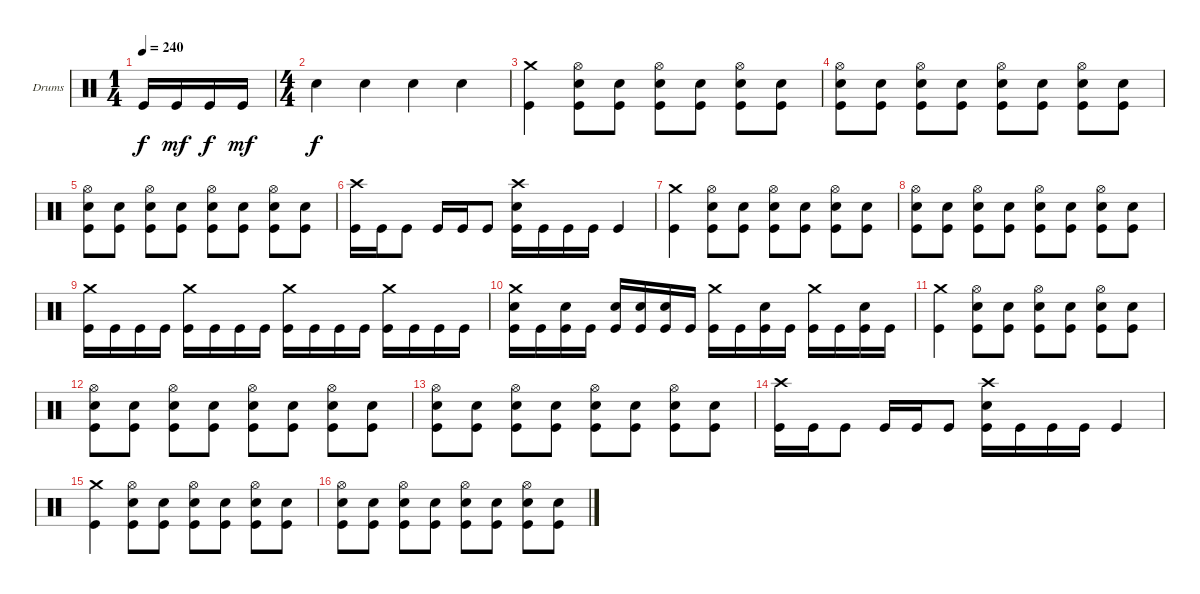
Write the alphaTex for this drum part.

\bracketExtendMode groupsimilarinstruments
\firstSystemTrackNameOrientation horizontal
\otherSystemsTrackNameOrientation horizontal
\track ("Drumkit" "Drums") {instrument percussion}
\staff {score}
\articulation defaults
\ts (1 4)
\tempo 240
\clef neutral
\ks c "Kick (hit)".16{dy f} "Kick (hit)".16{dy mf} "Kick (hit)".16{dy f} "Kick (hit)".16{dy mf}
|
\ts (4 4)
"Snare (hit) 2".4{dy f} "Snare (hit) 2".4 "Snare (hit) 2".4 "Snare (hit) 2".4 |
("Crash medium (hit)" "Kick (hit)").4 ("Hi-Hat (open)" "Snare (hit) 2" "Kick (hit)").8 ("Snare (hit) 2" "Kick (hit)").8 ("Hi-Hat (open)" "Snare (hit) 2" "Kick (hit)").8 ("Snare (hit) 2" "Kick (hit)").8 ("Hi-Hat (open)" "Snare (hit) 2" "Kick (hit)").8 ("Snare (hit) 2" "Kick (hit)").8 |
("Hi-Hat (open)" "Snare (hit) 2" "Kick (hit)").8 ("Snare (hit) 2" "Kick (hit)").8 ("Hi-Hat (open)" "Snare (hit) 2" "Kick (hit)").8 ("Snare (hit) 2" "Kick (hit)").8 ("Hi-Hat (open)" "Snare (hit) 2" "Kick (hit)").8 ("Snare (hit) 2" "Kick (hit)").8 ("Hi-Hat (open)" "Snare (hit) 2" "Kick (hit)").8 ("Snare (hit) 2" "Kick (hit)").8 |
("Hi-Hat (open)" "Snare (hit) 2" "Kick (hit)").8 ("Snare (hit) 2" "Kick (hit)").8 ("Hi-Hat (open)" "Snare (hit) 2" "Kick (hit)").8 ("Snare (hit) 2" "Kick (hit)").8 ("Hi-Hat (open)" "Snare (hit) 2" "Kick (hit)").8 ("Snare (hit) 2" "Kick (hit)").8 ("Hi-Hat (open)" "Snare (hit) 2" "Kick (hit)").8 ("Snare (hit) 2" "Kick (hit)").8 |
("Crash high (hit)" "Kick (hit)").16 "Kick (hit)".16 "Kick (hit)".8 "Kick (hit)".16 "Kick (hit)".16 "Kick (hit)".8 ("Crash high (hit)" "Snare (hit) 2" "Kick (hit)").16 "Kick (hit)".16 "Kick (hit)".16 "Kick (hit)".16 "Kick (hit)".4 |
("Crash medium (hit)" "Kick (hit)").4 ("Hi-Hat (open)" "Snare (hit) 2" "Kick (hit)").8 ("Snare (hit) 2" "Kick (hit)").8 ("Hi-Hat (open)" "Snare (hit) 2" "Kick (hit)").8 ("Snare (hit) 2" "Kick (hit)").8 ("Hi-Hat (open)" "Snare (hit) 2" "Kick (hit)").8 ("Snare (hit) 2" "Kick (hit)").8 |
("Hi-Hat (open)" "Snare (hit) 2" "Kick (hit)").8 ("Snare (hit) 2" "Kick (hit)").8 ("Hi-Hat (open)" "Snare (hit) 2" "Kick (hit)").8 ("Snare (hit) 2" "Kick (hit)").8 ("Hi-Hat (open)" "Snare (hit) 2" "Kick (hit)").8 ("Snare (hit) 2" "Kick (hit)").8 ("Hi-Hat (open)" "Snare (hit) 2" "Kick (hit)").8 ("Snare (hit) 2" "Kick (hit)").8 |
("Crash medium (hit)" "Kick (hit)").16 "Kick (hit)".16 "Kick (hit)".16 "Kick (hit)".16 ("Crash medium (hit)" "Kick (hit)").16 "Kick (hit)".16 "Kick (hit)".16 "Kick (hit)".16 ("Crash medium (hit)" "Kick (hit)").16 "Kick (hit)".16 "Kick (hit)".16 "Kick (hit)".16 ("Crash medium (hit)" "Kick (hit)").16 "Kick (hit)".16 "Kick (hit)".16 "Kick (hit)".16 |
("Crash medium (hit)" "Snare (hit) 2" "Kick (hit)").16 "Kick (hit)".16 ("Snare (hit) 2" "Kick (hit)").16 "Kick (hit)".16 ("Snare (hit) 2" "Kick (hit)").16 ("Snare (hit) 2" "Kick (hit)").16 ("Snare (hit) 2" "Kick (hit)").16 "Kick (hit)".16 ("Crash medium (hit)" "Kick (hit)").16 "Kick (hit)".16 ("Snare (hit) 2" "Kick (hit)").16 "Kick (hit)".16 ("Crash medium (hit)" "Kick (hit)").16 "Kick (hit)".16 ("Snare (hit) 2" "Kick (hit)").16 "Kick (hit)".16 |
("Crash medium (hit)" "Kick (hit)").4 ("Hi-Hat (open)" "Snare (hit) 2" "Kick (hit)").8 ("Snare (hit) 2" "Kick (hit)").8 ("Hi-Hat (open)" "Snare (hit) 2" "Kick (hit)").8 ("Snare (hit) 2" "Kick (hit)").8 ("Hi-Hat (open)" "Snare (hit) 2" "Kick (hit)").8 ("Snare (hit) 2" "Kick (hit)").8 |
("Hi-Hat (open)" "Snare (hit) 2" "Kick (hit)").8 ("Snare (hit) 2" "Kick (hit)").8 ("Hi-Hat (open)" "Snare (hit) 2" "Kick (hit)").8 ("Snare (hit) 2" "Kick (hit)").8 ("Hi-Hat (open)" "Snare (hit) 2" "Kick (hit)").8 ("Snare (hit) 2" "Kick (hit)").8 ("Hi-Hat (open)" "Snare (hit) 2" "Kick (hit)").8 ("Snare (hit) 2" "Kick (hit)").8 |
("Hi-Hat (open)" "Snare (hit) 2" "Kick (hit)").8 ("Snare (hit) 2" "Kick (hit)").8 ("Hi-Hat (open)" "Snare (hit) 2" "Kick (hit)").8 ("Snare (hit) 2" "Kick (hit)").8 ("Hi-Hat (open)" "Snare (hit) 2" "Kick (hit)").8 ("Snare (hit) 2" "Kick (hit)").8 ("Hi-Hat (open)" "Snare (hit) 2" "Kick (hit)").8 ("Snare (hit) 2" "Kick (hit)").8 |
("Crash high (hit)" "Kick (hit)").16 "Kick (hit)".16 "Kick (hit)".8 "Kick (hit)".16 "Kick (hit)".16 "Kick (hit)".8 ("Crash high (hit)" "Snare (hit) 2" "Kick (hit)").16 "Kick (hit)".16 "Kick (hit)".16 "Kick (hit)".16 "Kick (hit)".4 |
("Crash medium (hit)" "Kick (hit)").4 ("Hi-Hat (open)" "Snare (hit) 2" "Kick (hit)").8 ("Snare (hit) 2" "Kick (hit)").8 ("Hi-Hat (open)" "Snare (hit) 2" "Kick (hit)").8 ("Snare (hit) 2" "Kick (hit)").8 ("Hi-Hat (open)" "Snare (hit) 2" "Kick (hit)").8 ("Snare (hit) 2" "Kick (hit)").8 |
("Hi-Hat (open)" "Snare (hit) 2" "Kick (hit)").8 ("Snare (hit) 2" "Kick (hit)").8 ("Hi-Hat (open)" "Snare (hit) 2" "Kick (hit)").8 ("Snare (hit) 2" "Kick (hit)").8 ("Hi-Hat (open)" "Snare (hit) 2" "Kick (hit)").8 ("Snare (hit) 2" "Kick (hit)").8 ("Hi-Hat (open)" "Snare (hit) 2" "Kick (hit)").8 ("Snare (hit) 2" "Kick (hit)").8
